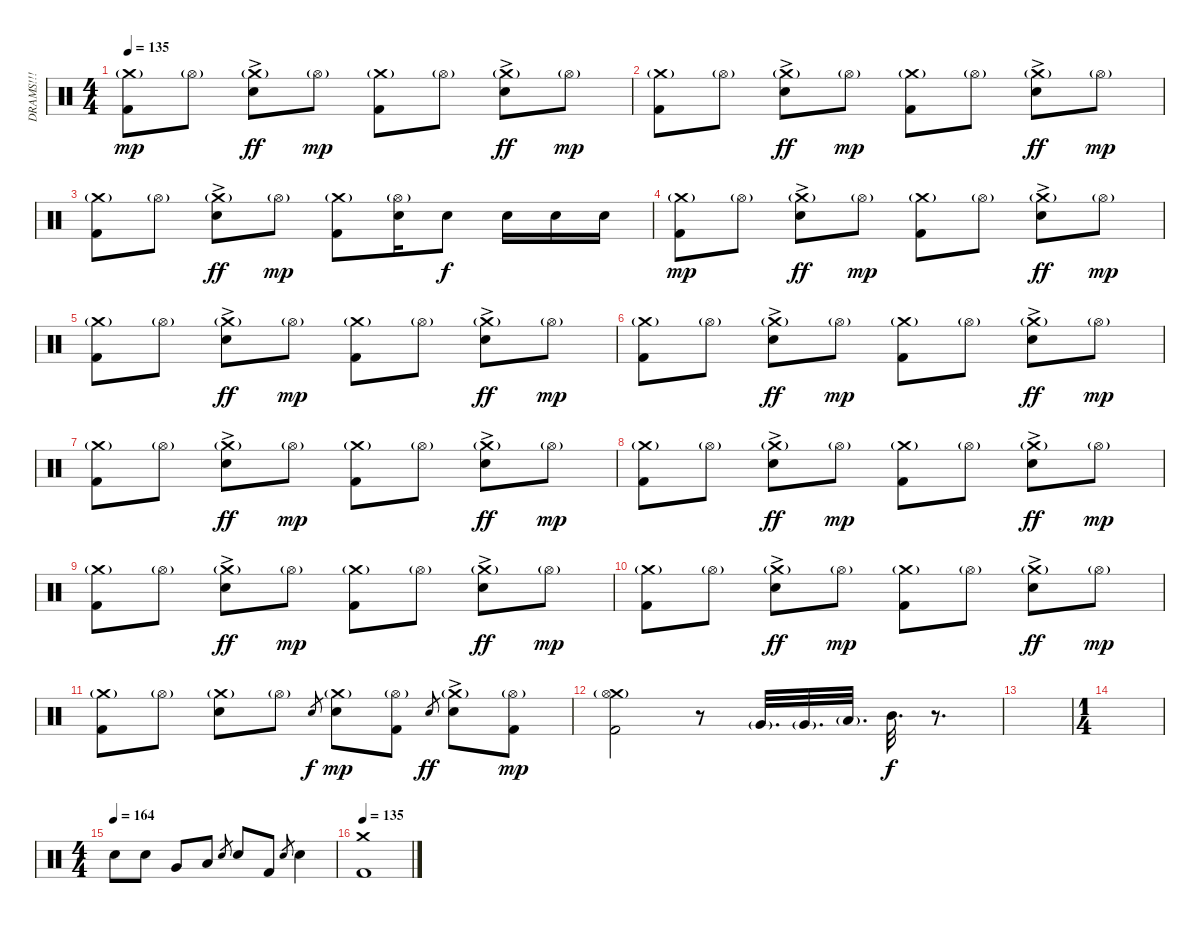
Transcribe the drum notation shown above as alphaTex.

\track ("DRAMS!!!" "DRAMS!!!") {instrument percussion}
\staff {score}
\articulation defaults
\ts (4 4)
\tempo 135
\clef neutral
\ks c
("Crash medium (hit)"{g} "Kick (hit) 2").8{dy mp} "Hi-Hat (open)"{g}.8 ("Crash medium (hit)"{g} "Snare (hit) 2"{ac}).8{dy ff} "Hi-Hat (open)"{g}.8{dy mp} ("Crash medium (hit)"{g} "Kick (hit) 2").8 "Hi-Hat (open)"{g}.8 ("Crash medium (hit)"{g} "Snare (hit) 2"{ac}).8{dy ff} "Hi-Hat (open)"{g}.8{dy mp} |
("Crash medium (hit)"{g} "Kick (hit) 2").8 "Hi-Hat (open)"{g}.8 ("Crash medium (hit)"{g} "Snare (hit) 2"{ac}).8{dy ff} "Hi-Hat (open)"{g}.8{dy mp} ("Crash medium (hit)"{g} "Kick (hit) 2").8 "Hi-Hat (open)"{g}.8 ("Crash medium (hit)"{g} "Snare (hit) 2"{ac}).8{dy ff} "Hi-Hat (open)"{g}.8{dy mp} |
("Crash medium (hit)"{g} "Kick (hit) 2").8 "Hi-Hat (open)"{g}.8 ("Crash medium (hit)"{g} "Snare (hit) 2"{ac}).8{dy ff} "Hi-Hat (open)"{g}.8{dy mp} ("Crash medium (hit)"{g} "Kick (hit) 2").8 ("Hi-Hat (open)"{g} "Snare (hit) 2").16 "Snare (hit) 2".8{dy f} "Snare (hit) 2".16 "Snare (hit) 2".16 "Snare (hit) 2".16 |
("Crash medium (hit)"{g} "Kick (hit) 2").8{dy mp} "Hi-Hat (open)"{g}.8 ("Crash medium (hit)"{g} "Snare (hit) 2"{ac}).8{dy ff} "Hi-Hat (open)"{g}.8{dy mp} ("Crash medium (hit)"{g} "Kick (hit) 2").8 "Hi-Hat (open)"{g}.8 ("Crash medium (hit)"{g} "Snare (hit) 2"{ac}).8{dy ff} "Hi-Hat (open)"{g}.8{dy mp} |
("Crash medium (hit)"{g} "Kick (hit) 2").8 "Hi-Hat (open)"{g}.8 ("Crash medium (hit)"{g} "Snare (hit) 2"{ac}).8{dy ff} "Hi-Hat (open)"{g}.8{dy mp} ("Crash medium (hit)"{g} "Kick (hit) 2").8 "Hi-Hat (open)"{g}.8 ("Crash medium (hit)"{g} "Snare (hit) 2"{ac}).8{dy ff} "Hi-Hat (open)"{g}.8{dy mp} |
("Crash medium (hit)"{g} "Kick (hit) 2").8 "Hi-Hat (open)"{g}.8 ("Crash medium (hit)"{g} "Snare (hit) 2"{ac}).8{dy ff} "Hi-Hat (open)"{g}.8{dy mp} ("Crash medium (hit)"{g} "Kick (hit) 2").8 "Hi-Hat (open)"{g}.8 ("Crash medium (hit)"{g} "Snare (hit) 2"{ac}).8{dy ff} "Hi-Hat (open)"{g}.8{dy mp} |
("Crash medium (hit)"{g} "Kick (hit) 2").8 "Hi-Hat (open)"{g}.8 ("Crash medium (hit)"{g} "Snare (hit) 2"{ac}).8{dy ff} "Hi-Hat (open)"{g}.8{dy mp} ("Crash medium (hit)"{g} "Kick (hit) 2").8 "Hi-Hat (open)"{g}.8 ("Crash medium (hit)"{g} "Snare (hit) 2"{ac}).8{dy ff} "Hi-Hat (open)"{g}.8{dy mp} |
("Crash medium (hit)"{g} "Kick (hit) 2").8 "Hi-Hat (open)"{g}.8 ("Crash medium (hit)"{g} "Snare (hit) 2"{ac}).8{dy ff} "Hi-Hat (open)"{g}.8{dy mp} ("Crash medium (hit)"{g} "Kick (hit) 2").8 "Hi-Hat (open)"{g}.8 ("Crash medium (hit)"{g} "Snare (hit) 2"{ac}).8{dy ff} "Hi-Hat (open)"{g}.8{dy mp} |
("Crash medium (hit)"{g} "Kick (hit) 2").8 "Hi-Hat (open)"{g}.8 ("Crash medium (hit)"{g} "Snare (hit) 2"{ac}).8{dy ff} "Hi-Hat (open)"{g}.8{dy mp} ("Crash medium (hit)"{g} "Kick (hit) 2").8 "Hi-Hat (open)"{g}.8 ("Crash medium (hit)"{g} "Snare (hit) 2"{ac}).8{dy ff} "Hi-Hat (open)"{g}.8{dy mp} |
("Crash medium (hit)"{g} "Kick (hit) 2").8 "Hi-Hat (open)"{g}.8 ("Crash medium (hit)"{g} "Snare (hit) 2"{ac}).8{dy ff} "Hi-Hat (open)"{g}.8{dy mp} ("Crash medium (hit)"{g} "Kick (hit) 2").8 "Hi-Hat (open)"{g}.8 ("Crash medium (hit)"{g} "Snare (hit) 2"{ac}).8{dy ff} "Hi-Hat (open)"{g}.8{dy mp} |
("Crash medium (hit)"{g} "Kick (hit) 2").8 "Hi-Hat (open)"{g}.8 ("Crash medium (hit)"{g} "Snare (hit) 2").8 "Hi-Hat (open)"{g}.8 "Snare (hit) 2".8{gr dy f} ("Crash medium (hit)"{g} "Snare (hit) 2").8{dy mp} ("Hi-Hat (open)"{g} "Kick (hit) 2").8 "Snare (hit) 2".8{gr dy ff} ("Crash medium (hit)"{g} "Snare (hit) 2"{ac}).8 ("Hi-Hat (open)"{g} "Kick (hit) 2").8{dy mp} |
("Crash medium (hit)"{g} "Hi-Hat (open)"{g} "Kick (hit) 2").2 r.8 "Very Low Tom (hit)"{g}.32{d} "Very Low Tom (hit)"{g}.32{d} "Low Tom (hit)"{g}.32{d} "Mid Tom (hit)".32{d dy f} r.8{d} |
|
\ts (1 4)
|
\ts (4 4)
\tempo (164)
"Snare (hit) 2".8{volume 13} "Snare (hit) 2".8 "Very Low Tom (hit)".8 "Low Tom (hit)".8 "Snare (hit) 2".8{gr} "Snare (hit) 2".8 "Kick (hit) 2".8 "Snare (hit) 2".8{gr} "Snare (hit) 2".4 |
\tempo 135
("Crash medium (hit)" "Kick (hit) 2").1
